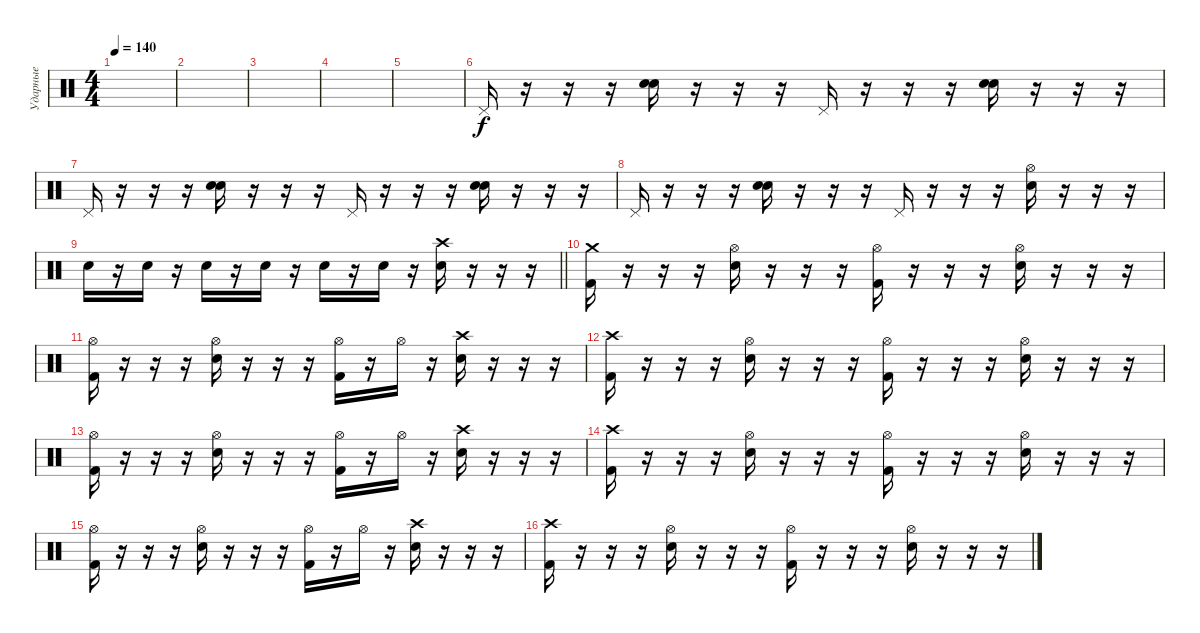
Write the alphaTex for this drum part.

\track ("Ударные" "Ударные") {instrument percussion}
\staff {score}
\articulation defaults
\ts (4 4)
\tempo 140
\clef neutral
\ks c
|
|
|
|
|
"Pedal Hi-Hat (hit)".16 r.16 r.16 r.16 ("Electric Snare (hit)" "Electric Snare (hit)").16 r.16 r.16 r.16 "Pedal Hi-Hat (hit)".16 r.16 r.16 r.16 ("Electric Snare (hit)" "Electric Snare (hit)").16 r.16 r.16 r.16 |
"Pedal Hi-Hat (hit)".16 r.16 r.16 r.16 ("Electric Snare (hit)" "Electric Snare (hit)").16 r.16 r.16 r.16 "Pedal Hi-Hat (hit)".16 r.16 r.16 r.16 ("Electric Snare (hit)" "Electric Snare (hit)").16 r.16 r.16 r.16 |
"Pedal Hi-Hat (hit)".16 r.16 r.16 r.16 ("Electric Snare (hit)" "Electric Snare (hit)").16 r.16 r.16 r.16 "Pedal Hi-Hat (hit)".16 r.16 r.16 r.16 ("Hi-Hat (open)" "Electric Snare (hit)").16 r.16 r.16 r.16 |
\barLineRight lightlight "Electric Snare (hit)".16
r.16 "Electric Snare (hit)".16 r.16 "Electric Snare (hit)".16 r.16 "Electric Snare (hit)".16 r.16 "Electric Snare (hit)".16 r.16 "Electric Snare (hit)".16 r.16 ("Crash high (hit)" "Electric Snare (hit)").16 r.16 r.16 r.16 |
("Crash medium (hit)" "Kick (hit) 2").16 r.16 r.16 r.16 ("Hi-Hat (open)" "Electric Snare (hit)").16 r.16 r.16 r.16 ("Hi-Hat (open)" "Kick (hit) 2").16 r.16 r.16 r.16 ("Hi-Hat (open)" "Electric Snare (hit)").16 r.16 r.16 r.16 |
("Hi-Hat (open)" "Kick (hit) 2").16 r.16 r.16 r.16 ("Hi-Hat (open)" "Electric Snare (hit)").16 r.16 r.16 r.16 ("Hi-Hat (open)" "Kick (hit) 2").16 r.16 "Hi-Hat (open)".16 r.16 ("Crash high (hit)" "Electric Snare (hit)").16 r.16 r.16 r.16 |
("Crash high (hit)" "Kick (hit) 2").16 r.16 r.16 r.16 ("Hi-Hat (open)" "Electric Snare (hit)").16 r.16 r.16 r.16 ("Hi-Hat (open)" "Kick (hit) 2").16 r.16 r.16 r.16 ("Hi-Hat (open)" "Electric Snare (hit)").16 r.16 r.16 r.16 |
("Hi-Hat (open)" "Kick (hit) 2").16 r.16 r.16 r.16 ("Hi-Hat (open)" "Electric Snare (hit)").16 r.16 r.16 r.16 ("Hi-Hat (open)" "Kick (hit) 2").16 r.16 "Hi-Hat (open)".16 r.16 ("Crash high (hit)" "Electric Snare (hit)").16 r.16 r.16 r.16 |
("Crash high (hit)" "Kick (hit) 2").16 r.16 r.16 r.16 ("Hi-Hat (open)" "Electric Snare (hit)").16 r.16 r.16 r.16 ("Hi-Hat (open)" "Kick (hit) 2").16 r.16 r.16 r.16 ("Hi-Hat (open)" "Electric Snare (hit)").16 r.16 r.16 r.16 |
("Hi-Hat (open)" "Kick (hit) 2").16 r.16 r.16 r.16 ("Hi-Hat (open)" "Electric Snare (hit)").16 r.16 r.16 r.16 ("Hi-Hat (open)" "Kick (hit) 2").16 r.16 "Hi-Hat (open)".16 r.16 ("Crash high (hit)" "Electric Snare (hit)").16 r.16 r.16 r.16 |
("Crash high (hit)" "Kick (hit) 2").16 r.16 r.16 r.16 ("Hi-Hat (open)" "Electric Snare (hit)").16 r.16 r.16 r.16 ("Hi-Hat (open)" "Kick (hit) 2").16 r.16 r.16 r.16 ("Hi-Hat (open)" "Electric Snare (hit)").16 r.16 r.16 r.16
